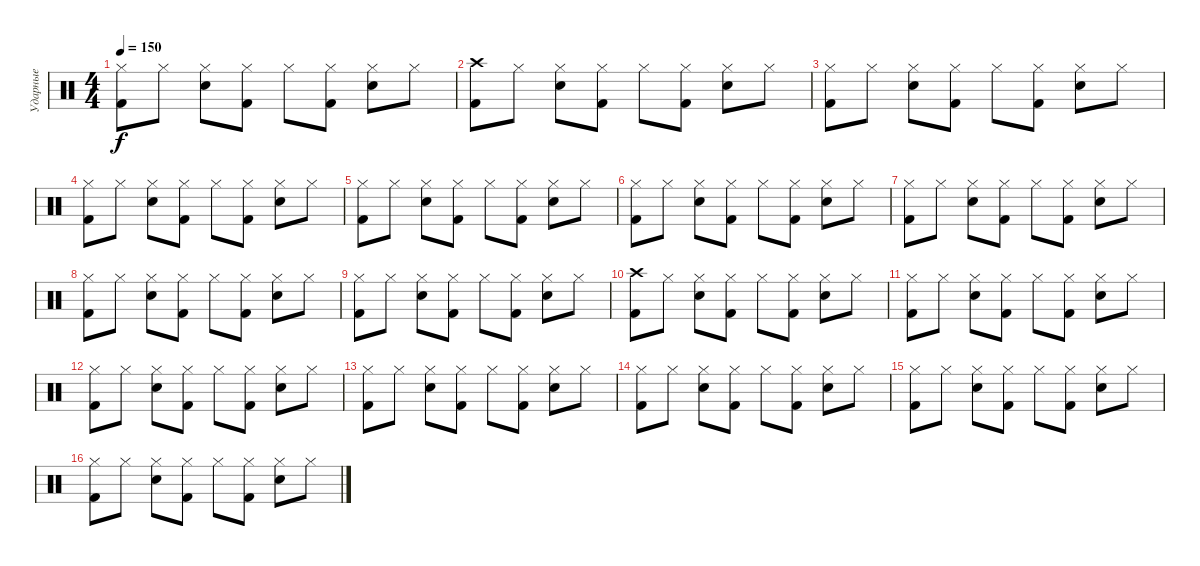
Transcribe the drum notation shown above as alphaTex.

\track ("Ударные" "Ударные") {instrument percussion}
\staff {score}
\articulation defaults
\ts (4 4)
\tempo 150
\clef neutral
\ks c
("Hi-Hat (closed)" "Kick (hit) 2").8{dy f} "Hi-Hat (closed)".8 ("Hi-Hat (closed)" "Snare (hit) 2").8 ("Hi-Hat (closed)" "Kick (hit) 2").8 "Hi-Hat (closed)".8 ("Hi-Hat (closed)" "Kick (hit) 2").8 ("Hi-Hat (closed)" "Snare (hit) 2").8 "Hi-Hat (closed)".8 |
("Crash high (hit)" "Kick (hit) 2").8 "Hi-Hat (closed)".8 ("Hi-Hat (closed)" "Snare (hit) 2").8 ("Hi-Hat (closed)" "Kick (hit) 2").8 "Hi-Hat (closed)".8 ("Hi-Hat (closed)" "Kick (hit) 2").8 ("Hi-Hat (closed)" "Snare (hit) 2").8 "Hi-Hat (closed)".8 |
("Hi-Hat (closed)" "Kick (hit) 2").8 "Hi-Hat (closed)".8 ("Hi-Hat (closed)" "Snare (hit) 2").8 ("Hi-Hat (closed)" "Kick (hit) 2").8 "Hi-Hat (closed)".8 ("Hi-Hat (closed)" "Kick (hit) 2").8 ("Hi-Hat (closed)" "Snare (hit) 2").8 "Hi-Hat (closed)".8 |
("Hi-Hat (closed)" "Kick (hit) 2").8 "Hi-Hat (closed)".8 ("Hi-Hat (closed)" "Snare (hit) 2").8 ("Hi-Hat (closed)" "Kick (hit) 2").8 "Hi-Hat (closed)".8 ("Hi-Hat (closed)" "Kick (hit) 2").8 ("Hi-Hat (closed)" "Snare (hit) 2").8 "Hi-Hat (closed)".8 |
("Hi-Hat (closed)" "Kick (hit) 2").8 "Hi-Hat (closed)".8 ("Hi-Hat (closed)" "Snare (hit) 2").8 ("Hi-Hat (closed)" "Kick (hit) 2").8 "Hi-Hat (closed)".8 ("Hi-Hat (closed)" "Kick (hit) 2").8 ("Hi-Hat (closed)" "Snare (hit) 2").8 "Hi-Hat (closed)".8 |
("Hi-Hat (closed)" "Kick (hit) 2").8 "Hi-Hat (closed)".8 ("Hi-Hat (closed)" "Snare (hit) 2").8 ("Hi-Hat (closed)" "Kick (hit) 2").8 "Hi-Hat (closed)".8 ("Hi-Hat (closed)" "Kick (hit) 2").8 ("Hi-Hat (closed)" "Snare (hit) 2").8 "Hi-Hat (closed)".8 |
("Hi-Hat (closed)" "Kick (hit) 2").8 "Hi-Hat (closed)".8 ("Hi-Hat (closed)" "Snare (hit) 2").8 ("Hi-Hat (closed)" "Kick (hit) 2").8 "Hi-Hat (closed)".8 ("Hi-Hat (closed)" "Kick (hit) 2").8 ("Hi-Hat (closed)" "Snare (hit) 2").8 "Hi-Hat (closed)".8 |
("Hi-Hat (closed)" "Kick (hit) 2").8 "Hi-Hat (closed)".8 ("Hi-Hat (closed)" "Snare (hit) 2").8 ("Hi-Hat (closed)" "Kick (hit) 2").8 "Hi-Hat (closed)".8 ("Hi-Hat (closed)" "Kick (hit) 2").8 ("Hi-Hat (closed)" "Snare (hit) 2").8 "Hi-Hat (closed)".8 |
("Hi-Hat (closed)" "Kick (hit) 2").8 "Hi-Hat (closed)".8 ("Hi-Hat (closed)" "Snare (hit) 2").8 ("Hi-Hat (closed)" "Kick (hit) 2").8 "Hi-Hat (closed)".8 ("Hi-Hat (closed)" "Kick (hit) 2").8 ("Hi-Hat (closed)" "Snare (hit) 2").8 "Hi-Hat (closed)".8 |
("Crash high (hit)" "Kick (hit) 2").8 "Hi-Hat (closed)".8 ("Hi-Hat (closed)" "Snare (hit) 2").8 ("Hi-Hat (closed)" "Kick (hit) 2").8 "Hi-Hat (closed)".8 ("Hi-Hat (closed)" "Kick (hit) 2").8 ("Hi-Hat (closed)" "Snare (hit) 2").8 "Hi-Hat (closed)".8 |
("Hi-Hat (closed)" "Kick (hit) 2").8 "Hi-Hat (closed)".8 ("Hi-Hat (closed)" "Snare (hit) 2").8 ("Hi-Hat (closed)" "Kick (hit) 2").8 "Hi-Hat (closed)".8 ("Hi-Hat (closed)" "Kick (hit) 2").8 ("Hi-Hat (closed)" "Snare (hit) 2").8 "Hi-Hat (closed)".8 |
("Hi-Hat (closed)" "Kick (hit) 2").8 "Hi-Hat (closed)".8 ("Hi-Hat (closed)" "Snare (hit) 2").8 ("Hi-Hat (closed)" "Kick (hit) 2").8 "Hi-Hat (closed)".8 ("Hi-Hat (closed)" "Kick (hit) 2").8 ("Hi-Hat (closed)" "Snare (hit) 2").8 "Hi-Hat (closed)".8 |
("Hi-Hat (closed)" "Kick (hit) 2").8 "Hi-Hat (closed)".8 ("Hi-Hat (closed)" "Snare (hit) 2").8 ("Hi-Hat (closed)" "Kick (hit) 2").8 "Hi-Hat (closed)".8 ("Hi-Hat (closed)" "Kick (hit) 2").8 ("Hi-Hat (closed)" "Snare (hit) 2").8 "Hi-Hat (closed)".8 |
("Hi-Hat (closed)" "Kick (hit) 2").8 "Hi-Hat (closed)".8 ("Hi-Hat (closed)" "Snare (hit) 2").8 ("Hi-Hat (closed)" "Kick (hit) 2").8 "Hi-Hat (closed)".8 ("Hi-Hat (closed)" "Kick (hit) 2").8 ("Hi-Hat (closed)" "Snare (hit) 2").8 "Hi-Hat (closed)".8 |
("Hi-Hat (closed)" "Kick (hit) 2").8 "Hi-Hat (closed)".8 ("Hi-Hat (closed)" "Snare (hit) 2").8 ("Hi-Hat (closed)" "Kick (hit) 2").8 "Hi-Hat (closed)".8 ("Hi-Hat (closed)" "Kick (hit) 2").8 ("Hi-Hat (closed)" "Snare (hit) 2").8 "Hi-Hat (closed)".8 |
("Hi-Hat (closed)" "Kick (hit) 2").8 "Hi-Hat (closed)".8 ("Hi-Hat (closed)" "Snare (hit) 2").8 ("Hi-Hat (closed)" "Kick (hit) 2").8 "Hi-Hat (closed)".8 ("Hi-Hat (closed)" "Kick (hit) 2").8 ("Hi-Hat (closed)" "Snare (hit) 2").8 "Hi-Hat (closed)".8
